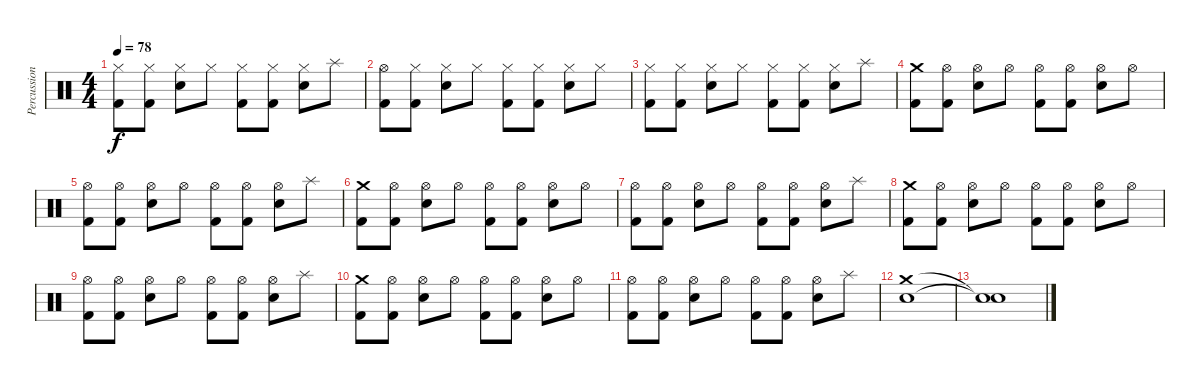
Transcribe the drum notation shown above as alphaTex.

\track ("Percussions" "Percussion") {instrument percussion}
\staff {score}
\articulation defaults
\ts (4 4)
\tempo 78
\clef neutral
\ks c
("Hi-Hat (closed)" "Kick (hit) 2").8{dy f} ("Hi-Hat (closed)" "Kick (hit) 2").8 ("Hi-Hat (closed)" "Electric Snare (hit)").8 "Hi-Hat (closed)".8 ("Hi-Hat (closed)" "Kick (hit) 2").8 ("Hi-Hat (closed)" "Kick (hit) 2").8 ("Hi-Hat (closed)" "Electric Snare (hit)").8 "Splash (hit)".8 |
("Hi-Hat (open)" "Kick (hit) 2").8 ("Hi-Hat (closed)" "Kick (hit) 2").8 ("Hi-Hat (closed)" "Electric Snare (hit)").8 "Hi-Hat (closed)".8 ("Hi-Hat (closed)" "Kick (hit) 2").8 ("Hi-Hat (closed)" "Kick (hit) 2").8 ("Hi-Hat (closed)" "Electric Snare (hit)").8 "Hi-Hat (closed)".8 |
("Hi-Hat (closed)" "Kick (hit) 2").8 ("Hi-Hat (closed)" "Kick (hit) 2").8 ("Hi-Hat (closed)" "Electric Snare (hit)").8 "Hi-Hat (closed)".8 ("Hi-Hat (closed)" "Kick (hit) 2").8 ("Hi-Hat (closed)" "Kick (hit) 2").8 ("Hi-Hat (closed)" "Electric Snare (hit)").8 "Splash (hit)".8 |
("Crash medium (hit)" "Kick (hit) 2").8 ("Hi-Hat (open)" "Kick (hit) 2").8 ("Hi-Hat (open)" "Electric Snare (hit)").8 "Hi-Hat (open)".8 ("Hi-Hat (open)" "Kick (hit) 2").8 ("Hi-Hat (open)" "Kick (hit) 2").8 ("Hi-Hat (open)" "Electric Snare (hit)").8 "Hi-Hat (open)".8 |
("Hi-Hat (open)" "Kick (hit) 2").8 ("Hi-Hat (open)" "Kick (hit) 2").8 ("Hi-Hat (open)" "Electric Snare (hit)").8 "Hi-Hat (open)".8 ("Hi-Hat (open)" "Kick (hit) 2").8 ("Hi-Hat (open)" "Kick (hit) 2").8 ("Hi-Hat (open)" "Electric Snare (hit)").8 "Splash (hit)".8 |
("Crash medium (hit)" "Kick (hit) 2").8 ("Hi-Hat (open)" "Kick (hit) 2").8 ("Hi-Hat (open)" "Electric Snare (hit)").8 "Hi-Hat (open)".8 ("Hi-Hat (open)" "Kick (hit) 2").8 ("Hi-Hat (open)" "Kick (hit) 2").8 ("Hi-Hat (open)" "Electric Snare (hit)").8 "Hi-Hat (open)".8 |
("Hi-Hat (open)" "Kick (hit) 2").8 ("Hi-Hat (open)" "Kick (hit) 2").8 ("Hi-Hat (open)" "Electric Snare (hit)").8 "Hi-Hat (open)".8 ("Hi-Hat (open)" "Kick (hit) 2").8 ("Hi-Hat (open)" "Kick (hit) 2").8 ("Hi-Hat (open)" "Electric Snare (hit)").8 "Splash (hit)".8 |
("Crash medium (hit)" "Kick (hit) 2").8 ("Hi-Hat (open)" "Kick (hit) 2").8 ("Hi-Hat (open)" "Electric Snare (hit)").8 "Hi-Hat (open)".8 ("Hi-Hat (open)" "Kick (hit) 2").8 ("Hi-Hat (open)" "Kick (hit) 2").8 ("Hi-Hat (open)" "Electric Snare (hit)").8 "Hi-Hat (open)".8 |
("Hi-Hat (open)" "Kick (hit) 2").8 ("Hi-Hat (open)" "Kick (hit) 2").8 ("Hi-Hat (open)" "Electric Snare (hit)").8 "Hi-Hat (open)".8 ("Hi-Hat (open)" "Kick (hit) 2").8 ("Hi-Hat (open)" "Kick (hit) 2").8 ("Hi-Hat (open)" "Electric Snare (hit)").8 "Splash (hit)".8 |
("Crash medium (hit)" "Kick (hit) 2").8 ("Hi-Hat (open)" "Kick (hit) 2").8 ("Hi-Hat (open)" "Electric Snare (hit)").8 "Hi-Hat (open)".8 ("Hi-Hat (open)" "Kick (hit) 2").8 ("Hi-Hat (open)" "Kick (hit) 2").8 ("Hi-Hat (open)" "Electric Snare (hit)").8 "Hi-Hat (open)".8 |
("Hi-Hat (open)" "Kick (hit) 2").8 ("Hi-Hat (open)" "Kick (hit) 2").8 ("Hi-Hat (open)" "Electric Snare (hit)").8 "Hi-Hat (open)".8 ("Hi-Hat (open)" "Kick (hit) 2").8 ("Hi-Hat (open)" "Kick (hit) 2").8 ("Hi-Hat (open)" "Electric Snare (hit)").8 "Splash (hit)".8 |
("Crash medium (hit)" "Electric Snare (hit)").1 |
("Snare (hit)"{t} "Snare (hit)"{t}).1
